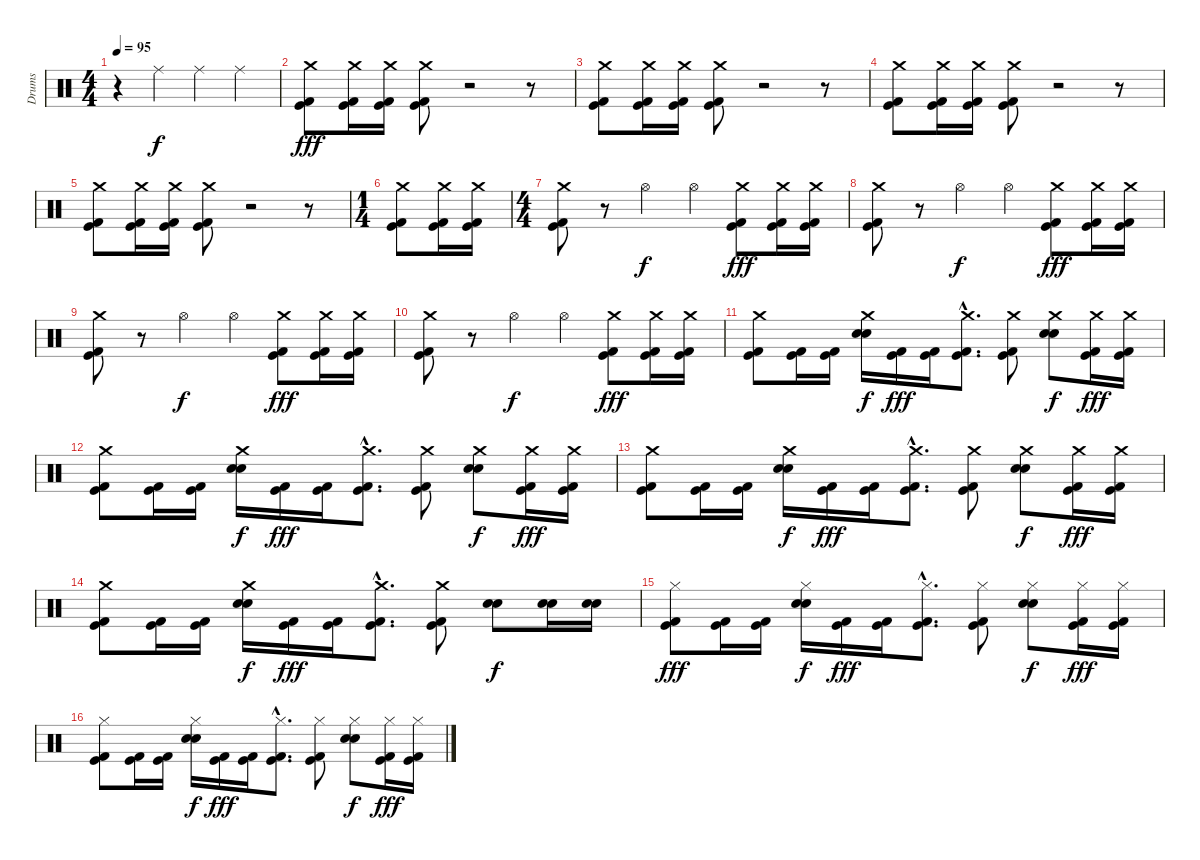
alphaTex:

\track ("Drums" "Drums") {instrument percussion}
\staff {score}
\articulation defaults
\ts (4 4)
\tempo 95
\clef neutral
\ks c
r.4{dy f} "Ride (middle)".4 "Ride (middle)".4 "Ride (middle)".4 |
("Crash medium (hit)" "Kick (hit)" "Kick (hit) 2").8{dy fff} ("Crash medium (hit)" "Kick (hit)" "Kick (hit) 2").16 ("Crash medium (hit)" "Kick (hit)" "Kick (hit) 2").16 ("Crash medium (hit)" "Kick (hit)" "Kick (hit) 2").8 r.2 r.8 |
("Crash medium (hit)" "Kick (hit)" "Kick (hit) 2").8 ("Crash medium (hit)" "Kick (hit)" "Kick (hit) 2").16 ("Crash medium (hit)" "Kick (hit)" "Kick (hit) 2").16 ("Crash medium (hit)" "Kick (hit)" "Kick (hit) 2").8 r.2 r.8 |
("Crash medium (hit)" "Kick (hit)" "Kick (hit) 2").8 ("Crash medium (hit)" "Kick (hit)" "Kick (hit) 2").16 ("Crash medium (hit)" "Kick (hit)" "Kick (hit) 2").16 ("Crash medium (hit)" "Kick (hit)" "Kick (hit) 2").8 r.2 r.8 |
("Crash medium (hit)" "Kick (hit)" "Kick (hit) 2").8 ("Crash medium (hit)" "Kick (hit)" "Kick (hit) 2").16 ("Crash medium (hit)" "Kick (hit)" "Kick (hit) 2").16 ("Crash medium (hit)" "Kick (hit)" "Kick (hit) 2").8 r.2 r.8 |
\ts (1 4)
("Crash medium (hit)" "Kick (hit)" "Kick (hit) 2").8 ("Crash medium (hit)" "Kick (hit)" "Kick (hit) 2").16 ("Crash medium (hit)" "Kick (hit)" "Kick (hit) 2").16 |
\ts (4 4)
("Crash medium (hit)" "Kick (hit)" "Kick (hit) 2").8 r.8 "Hi-Hat (open)".4{dy f} "Hi-Hat (open)".4 ("Crash medium (hit)" "Kick (hit)" "Kick (hit) 2").8{dy fff} ("Crash medium (hit)" "Kick (hit)" "Kick (hit) 2").16 ("Crash medium (hit)" "Kick (hit)" "Kick (hit) 2").16 |
("Crash medium (hit)" "Kick (hit)" "Kick (hit) 2").8 r.8 "Hi-Hat (open)".4{dy f} "Hi-Hat (open)".4 ("Crash medium (hit)" "Kick (hit)" "Kick (hit) 2").8{dy fff} ("Crash medium (hit)" "Kick (hit)" "Kick (hit) 2").16 ("Crash medium (hit)" "Kick (hit)" "Kick (hit) 2").16 |
("Crash medium (hit)" "Kick (hit)" "Kick (hit) 2").8 r.8 "Hi-Hat (open)".4{dy f} "Hi-Hat (open)".4 ("Crash medium (hit)" "Kick (hit)" "Kick (hit) 2").8{dy fff} ("Crash medium (hit)" "Kick (hit)" "Kick (hit) 2").16 ("Crash medium (hit)" "Kick (hit)" "Kick (hit) 2").16 |
("Crash medium (hit)" "Kick (hit)" "Kick (hit) 2").8 r.8 "Hi-Hat (open)".4{dy f} "Hi-Hat (open)".4 ("Crash medium (hit)" "Kick (hit)" "Kick (hit) 2").8{dy fff} ("Crash medium (hit)" "Kick (hit)" "Kick (hit) 2").16 ("Crash medium (hit)" "Kick (hit)" "Kick (hit) 2").16 |
("Crash medium (hit)" "Kick (hit)" "Kick (hit) 2").8 ("Kick (hit)" "Kick (hit) 2").16 ("Kick (hit)" "Kick (hit) 2").16 ("Crash medium (hit)" "Snare (hit) 2" "Snare (hit) 2").16{dy f} ("Kick (hit)" "Kick (hit) 2").16{dy fff} ("Kick (hit)" "Kick (hit) 2").16 ("Crash medium (hit)"{hac} "Kick (hit)"{hac} "Kick (hit) 2"{hac}).8{d} ("Crash medium (hit)" "Kick (hit)" "Kick (hit) 2").8 ("Crash medium (hit)" "Snare (hit) 2" "Snare (hit) 2").8{dy f} ("Crash medium (hit)" "Kick (hit)" "Kick (hit) 2").16{dy fff} ("Crash medium (hit)" "Kick (hit)" "Kick (hit) 2").16 |
("Crash medium (hit)" "Kick (hit)" "Kick (hit) 2").8 ("Kick (hit)" "Kick (hit) 2").16 ("Kick (hit)" "Kick (hit) 2").16 ("Crash medium (hit)" "Snare (hit) 2" "Snare (hit) 2").16{dy f} ("Kick (hit)" "Kick (hit) 2").16{dy fff} ("Kick (hit)" "Kick (hit) 2").16 ("Crash medium (hit)"{hac} "Kick (hit)"{hac} "Kick (hit) 2"{hac}).8{d} ("Crash medium (hit)" "Kick (hit)" "Kick (hit) 2").8 ("Crash medium (hit)" "Snare (hit) 2" "Snare (hit) 2").8{dy f} ("Crash medium (hit)" "Kick (hit)" "Kick (hit) 2").16{dy fff} ("Crash medium (hit)" "Kick (hit)" "Kick (hit) 2").16 |
("Crash medium (hit)" "Kick (hit)" "Kick (hit) 2").8 ("Kick (hit)" "Kick (hit) 2").16 ("Kick (hit)" "Kick (hit) 2").16 ("Crash medium (hit)" "Snare (hit) 2" "Snare (hit) 2").16{dy f} ("Kick (hit)" "Kick (hit) 2").16{dy fff} ("Kick (hit)" "Kick (hit) 2").16 ("Crash medium (hit)"{hac} "Kick (hit)"{hac} "Kick (hit) 2"{hac}).8{d} ("Crash medium (hit)" "Kick (hit)" "Kick (hit) 2").8 ("Crash medium (hit)" "Snare (hit) 2" "Snare (hit) 2").8{dy f} ("Crash medium (hit)" "Kick (hit)" "Kick (hit) 2").16{dy fff} ("Crash medium (hit)" "Kick (hit)" "Kick (hit) 2").16 |
("Crash medium (hit)" "Kick (hit)" "Kick (hit) 2").8 ("Kick (hit)" "Kick (hit) 2").16 ("Kick (hit)" "Kick (hit) 2").16 ("Crash medium (hit)" "Snare (hit) 2" "Snare (hit) 2").16{dy f} ("Kick (hit)" "Kick (hit) 2").16{dy fff} ("Kick (hit)" "Kick (hit) 2").16 ("Crash medium (hit)"{hac} "Kick (hit)"{hac} "Kick (hit) 2"{hac}).8{d} ("Crash medium (hit)" "Kick (hit)" "Kick (hit) 2").8 ("Snare (hit) 2" "Snare (hit) 2").8{dy f} ("Snare (hit) 2" "Snare (hit) 2").16 ("Snare (hit) 2" "Snare (hit) 2").16 |
("Hi-Hat (closed)" "Kick (hit)" "Kick (hit) 2").8{dy fff} ("Kick (hit)" "Kick (hit) 2").16 ("Kick (hit)" "Kick (hit) 2").16 ("Hi-Hat (closed)" "Snare (hit) 2" "Snare (hit) 2").16{dy f} ("Kick (hit)" "Kick (hit) 2").16{dy fff} ("Kick (hit)" "Kick (hit) 2").16 ("Hi-Hat (closed)"{hac} "Kick (hit)"{hac} "Kick (hit) 2"{hac}).8{d} ("Hi-Hat (closed)" "Kick (hit)" "Kick (hit) 2").8 ("Hi-Hat (closed)" "Snare (hit) 2" "Snare (hit) 2").8{dy f} ("Hi-Hat (closed)" "Kick (hit)" "Kick (hit) 2").16{dy fff} ("Hi-Hat (closed)" "Kick (hit)" "Kick (hit) 2").16 |
("Hi-Hat (closed)" "Kick (hit)" "Kick (hit) 2").8 ("Kick (hit)" "Kick (hit) 2").16 ("Kick (hit)" "Kick (hit) 2").16 ("Hi-Hat (closed)" "Snare (hit) 2" "Snare (hit) 2").16{dy f} ("Kick (hit)" "Kick (hit) 2").16{dy fff} ("Kick (hit)" "Kick (hit) 2").16 ("Hi-Hat (closed)"{hac} "Kick (hit)"{hac} "Kick (hit) 2"{hac}).8{d} ("Hi-Hat (closed)" "Kick (hit)" "Kick (hit) 2").8 ("Hi-Hat (closed)" "Snare (hit) 2" "Snare (hit) 2").8{dy f} ("Hi-Hat (closed)" "Kick (hit)" "Kick (hit) 2").16{dy fff} ("Hi-Hat (closed)" "Kick (hit)" "Kick (hit) 2").16
